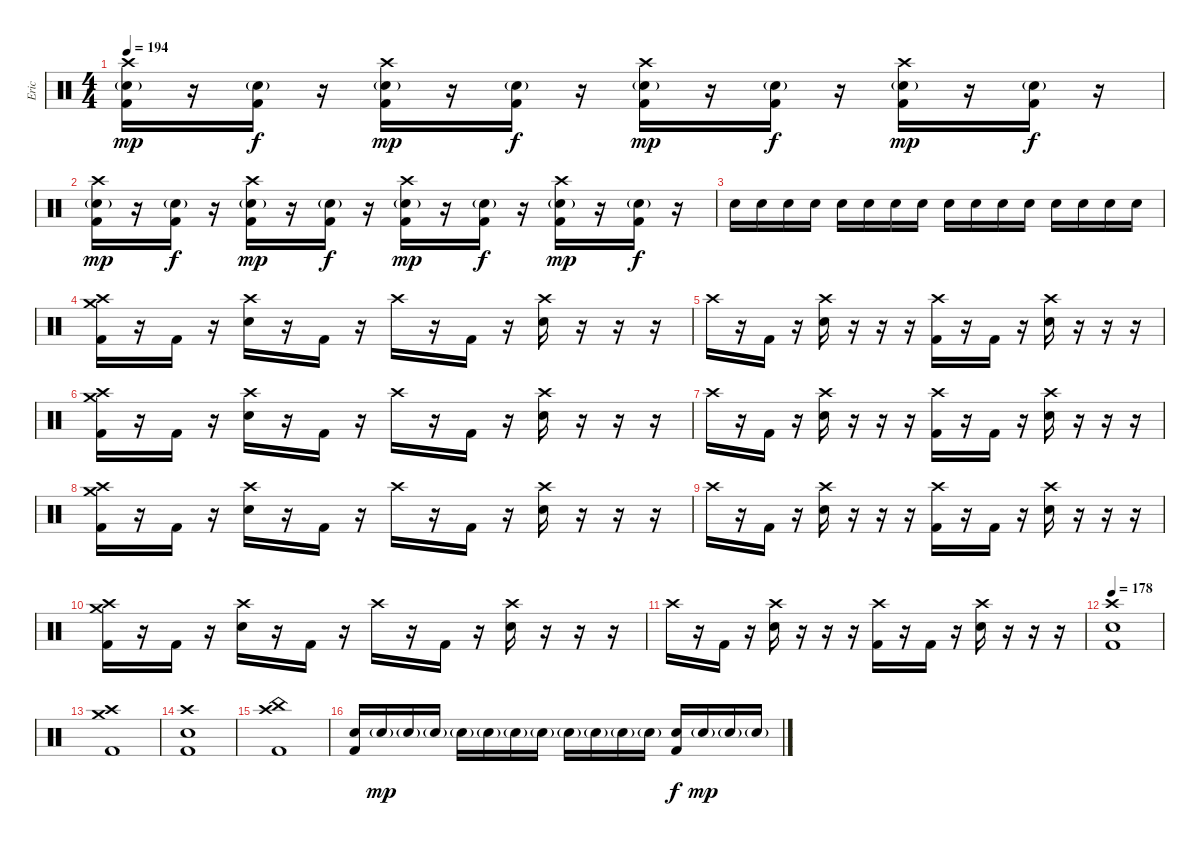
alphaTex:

\track ("Eric" "Eric") {instrument percussion}
\staff {score}
\articulation defaults
\ts (4 4)
\tempo 194
\clef neutral
\ks c
("Crash high (hit)" "Electric Snare (hit)"{g} "Kick (hit) 2").16{dy mp} r.16 ("Electric Snare (hit)"{g} "Kick (hit) 2").16{dy f} r.16 ("Crash high (hit)" "Electric Snare (hit)"{g} "Kick (hit) 2").16{dy mp} r.16 ("Electric Snare (hit)"{g} "Kick (hit) 2").16{dy f} r.16 ("Crash high (hit)" "Electric Snare (hit)"{g} "Kick (hit) 2").16{dy mp} r.16 ("Electric Snare (hit)"{g} "Kick (hit) 2").16{dy f} r.16 ("Crash high (hit)" "Electric Snare (hit)"{g} "Kick (hit) 2").16{dy mp} r.16 ("Electric Snare (hit)"{g} "Kick (hit) 2").16{dy f} r.16 |
("Crash high (hit)" "Electric Snare (hit)"{g} "Kick (hit) 2").16{dy mp} r.16 ("Electric Snare (hit)"{g} "Kick (hit) 2").16{dy f} r.16 ("Crash high (hit)" "Electric Snare (hit)"{g} "Kick (hit) 2").16{dy mp} r.16 ("Electric Snare (hit)"{g} "Kick (hit) 2").16{dy f} r.16 ("Crash high (hit)" "Electric Snare (hit)"{g} "Kick (hit) 2").16{dy mp} r.16 ("Electric Snare (hit)"{g} "Kick (hit) 2").16{dy f} r.16 ("Crash high (hit)" "Electric Snare (hit)"{g} "Kick (hit) 2").16{dy mp} r.16 ("Electric Snare (hit)"{g} "Kick (hit) 2").16{dy f} r.16 |
"Electric Snare (hit)".16 "Electric Snare (hit)".16 "Electric Snare (hit)".16 "Electric Snare (hit)".16 "Electric Snare (hit)".16 "Electric Snare (hit)".16 "Electric Snare (hit)".16 "Electric Snare (hit)".16 "Electric Snare (hit)".16 "Electric Snare (hit)".16 "Electric Snare (hit)".16 "Electric Snare (hit)".16 "Electric Snare (hit)".16 "Electric Snare (hit)".16 "Electric Snare (hit)".16 "Electric Snare (hit)".16 |
("Crash high (hit)" "Crash medium (hit)" "Kick (hit) 2").16 r.16 "Kick (hit) 2".16 r.16 ("Crash high (hit)" "Electric Snare (hit)").16 r.16 "Kick (hit) 2".16 r.16 "Crash high (hit)".16 r.16 "Kick (hit) 2".16 r.16 ("Crash high (hit)" "Electric Snare (hit)").16 r.16 r.16 r.16 |
"Crash high (hit)".16 r.16 "Kick (hit) 2".16 r.16 ("Crash high (hit)" "Electric Snare (hit)").16 r.16 r.16 r.16 ("Crash high (hit)" "Kick (hit) 2").16 r.16 "Kick (hit) 2".16 r.16 ("Crash high (hit)" "Electric Snare (hit)").16 r.16 r.16 r.16 |
("Crash high (hit)" "Crash medium (hit)" "Kick (hit) 2").16 r.16 "Kick (hit) 2".16 r.16 ("Crash high (hit)" "Electric Snare (hit)").16 r.16 "Kick (hit) 2".16 r.16 "Crash high (hit)".16 r.16 "Kick (hit) 2".16 r.16 ("Crash high (hit)" "Electric Snare (hit)").16 r.16 r.16 r.16 |
"Crash high (hit)".16 r.16 "Kick (hit) 2".16 r.16 ("Crash high (hit)" "Electric Snare (hit)").16 r.16 r.16 r.16 ("Crash high (hit)" "Kick (hit) 2").16 r.16 "Kick (hit) 2".16 r.16 ("Crash high (hit)" "Electric Snare (hit)").16 r.16 r.16 r.16 |
("Crash high (hit)" "Crash medium (hit)" "Kick (hit) 2").16 r.16 "Kick (hit) 2".16 r.16 ("Crash high (hit)" "Electric Snare (hit)").16 r.16 "Kick (hit) 2".16 r.16 "Crash high (hit)".16 r.16 "Kick (hit) 2".16 r.16 ("Crash high (hit)" "Electric Snare (hit)").16 r.16 r.16 r.16 |
"Crash high (hit)".16 r.16 "Kick (hit) 2".16 r.16 ("Crash high (hit)" "Electric Snare (hit)").16 r.16 r.16 r.16 ("Crash high (hit)" "Kick (hit) 2").16 r.16 "Kick (hit) 2".16 r.16 ("Crash high (hit)" "Electric Snare (hit)").16 r.16 r.16 r.16 |
("Crash high (hit)" "Crash medium (hit)" "Kick (hit) 2").16 r.16 "Kick (hit) 2".16 r.16 ("Crash high (hit)" "Electric Snare (hit)").16 r.16 "Kick (hit) 2".16 r.16 "Crash high (hit)".16 r.16 "Kick (hit) 2".16 r.16 ("Crash high (hit)" "Electric Snare (hit)").16 r.16 r.16 r.16 |
"Crash high (hit)".16 r.16 "Kick (hit) 2".16 r.16 ("Crash high (hit)" "Electric Snare (hit)").16 r.16 r.16 r.16 ("Crash high (hit)" "Kick (hit) 2").16 r.16 "Kick (hit) 2".16 r.16 ("Crash high (hit)" "Electric Snare (hit)").16 r.16 r.16 r.16 |
\tempo 178
("Crash high (hit)" "Electric Snare (hit)" "Kick (hit) 2").1 |
("Crash high (hit)" "Crash medium (hit)" "Kick (hit) 2").1 |
("Crash high (hit)" "Electric Snare (hit)" "Kick (hit) 2").1 |
("Crash high (hit)" "China (hit)" "Kick (hit) 2").1 |
("Electric Snare (hit)" "Kick (hit) 2").16 "Electric Snare (hit)"{g}.16{dy mp} "Electric Snare (hit)"{g}.16 "Electric Snare (hit)"{g}.16 "Electric Snare (hit)"{g}.16 "Electric Snare (hit)"{g}.16 "Electric Snare (hit)"{g}.16 "Electric Snare (hit)"{g}.16 "Electric Snare (hit)"{g}.16 "Electric Snare (hit)"{g}.16 "Electric Snare (hit)"{g}.16 "Electric Snare (hit)"{g}.16 ("Electric Snare (hit)" "Kick (hit) 2").16{dy f} "Electric Snare (hit)"{g}.16{dy mp} "Electric Snare (hit)"{g}.16 "Electric Snare (hit)"{g}.16
